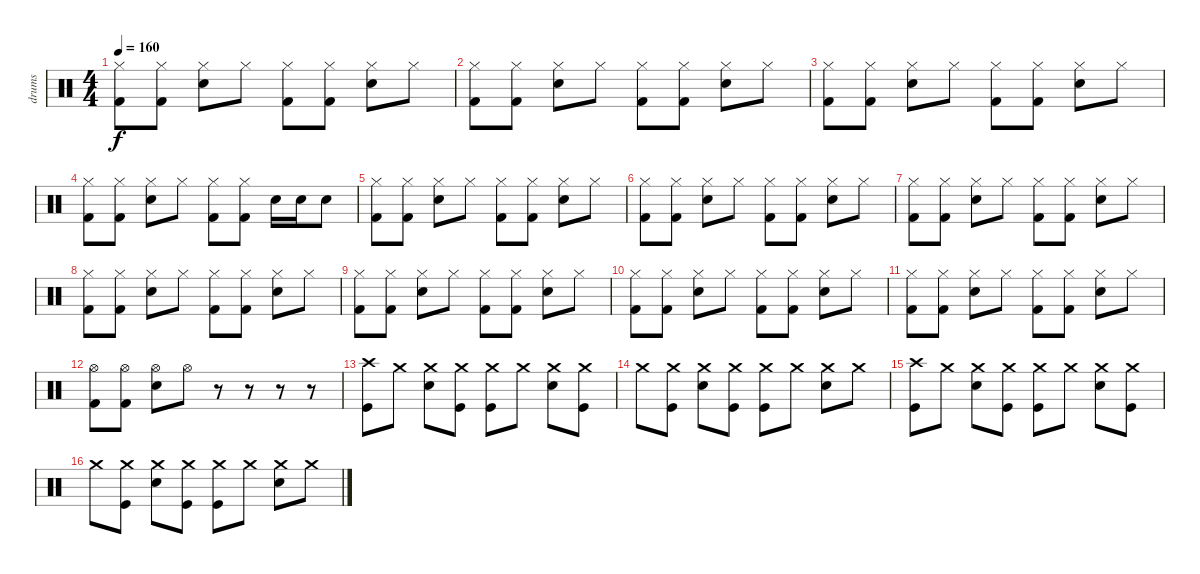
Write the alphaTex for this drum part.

\track ("drums" "drums") {instrument percussion}
\staff {score}
\articulation defaults
\ts (4 4)
\tempo 160
\clef neutral
\ks c
("Hi-Hat (closed)" "Kick (hit) 2").8{dy f} ("Hi-Hat (closed)" "Kick (hit) 2").8 ("Hi-Hat (closed)" "Electric Snare (hit)").8 "Hi-Hat (closed)".8 ("Hi-Hat (closed)" "Kick (hit) 2").8 ("Hi-Hat (closed)" "Kick (hit) 2").8 ("Hi-Hat (closed)" "Electric Snare (hit)").8 "Hi-Hat (closed)".8 |
("Hi-Hat (closed)" "Kick (hit) 2").8 ("Hi-Hat (closed)" "Kick (hit) 2").8 ("Hi-Hat (closed)" "Electric Snare (hit)").8 "Hi-Hat (closed)".8 ("Hi-Hat (closed)" "Kick (hit) 2").8 ("Hi-Hat (closed)" "Kick (hit) 2").8 ("Hi-Hat (closed)" "Electric Snare (hit)").8 "Hi-Hat (closed)".8 |
("Hi-Hat (closed)" "Kick (hit) 2").8 ("Hi-Hat (closed)" "Kick (hit) 2").8 ("Hi-Hat (closed)" "Electric Snare (hit)").8 "Hi-Hat (closed)".8 ("Hi-Hat (closed)" "Kick (hit) 2").8 ("Hi-Hat (closed)" "Kick (hit) 2").8 ("Hi-Hat (closed)" "Electric Snare (hit)").8 "Hi-Hat (closed)".8 |
("Hi-Hat (closed)" "Kick (hit) 2").8 ("Hi-Hat (closed)" "Kick (hit) 2").8 ("Hi-Hat (closed)" "Electric Snare (hit)").8 "Hi-Hat (closed)".8 ("Hi-Hat (closed)" "Kick (hit) 2").8 ("Hi-Hat (closed)" "Kick (hit) 2").8 "Electric Snare (hit)".16 "Electric Snare (hit)".16 "Electric Snare (hit)".8 |
("Hi-Hat (closed)" "Kick (hit) 2").8 ("Hi-Hat (closed)" "Kick (hit) 2").8 ("Hi-Hat (closed)" "Electric Snare (hit)").8 "Hi-Hat (closed)".8 ("Hi-Hat (closed)" "Kick (hit) 2").8 ("Hi-Hat (closed)" "Kick (hit) 2").8 ("Hi-Hat (closed)" "Electric Snare (hit)").8 "Hi-Hat (closed)".8 |
("Hi-Hat (closed)" "Kick (hit) 2").8 ("Hi-Hat (closed)" "Kick (hit) 2").8 ("Hi-Hat (closed)" "Electric Snare (hit)").8 "Hi-Hat (closed)".8 ("Hi-Hat (closed)" "Kick (hit) 2").8 ("Hi-Hat (closed)" "Kick (hit) 2").8 ("Hi-Hat (closed)" "Electric Snare (hit)").8 "Hi-Hat (closed)".8 |
("Hi-Hat (closed)" "Kick (hit) 2").8 ("Hi-Hat (closed)" "Kick (hit) 2").8 ("Hi-Hat (closed)" "Electric Snare (hit)").8 "Hi-Hat (closed)".8 ("Hi-Hat (closed)" "Kick (hit) 2").8 ("Hi-Hat (closed)" "Kick (hit) 2").8 ("Hi-Hat (closed)" "Electric Snare (hit)").8 "Hi-Hat (closed)".8 |
("Hi-Hat (closed)" "Kick (hit) 2").8 ("Hi-Hat (closed)" "Kick (hit) 2").8 ("Hi-Hat (closed)" "Electric Snare (hit)").8 "Hi-Hat (closed)".8 ("Hi-Hat (closed)" "Kick (hit) 2").8 ("Hi-Hat (closed)" "Kick (hit) 2").8 ("Hi-Hat (closed)" "Electric Snare (hit)").8 "Hi-Hat (closed)".8 |
("Hi-Hat (closed)" "Kick (hit) 2").8 ("Hi-Hat (closed)" "Kick (hit) 2").8 ("Hi-Hat (closed)" "Electric Snare (hit)").8 "Hi-Hat (closed)".8 ("Hi-Hat (closed)" "Kick (hit) 2").8 ("Hi-Hat (closed)" "Kick (hit) 2").8 ("Hi-Hat (closed)" "Electric Snare (hit)").8 "Hi-Hat (closed)".8 |
("Hi-Hat (closed)" "Kick (hit) 2").8 ("Hi-Hat (closed)" "Kick (hit) 2").8 ("Hi-Hat (closed)" "Electric Snare (hit)").8 "Hi-Hat (closed)".8 ("Hi-Hat (closed)" "Kick (hit) 2").8 ("Hi-Hat (closed)" "Kick (hit) 2").8 ("Hi-Hat (closed)" "Electric Snare (hit)").8 "Hi-Hat (closed)".8 |
("Hi-Hat (closed)" "Kick (hit) 2").8 ("Hi-Hat (closed)" "Kick (hit) 2").8 ("Hi-Hat (closed)" "Electric Snare (hit)").8 "Hi-Hat (closed)".8 ("Hi-Hat (closed)" "Kick (hit) 2").8 ("Hi-Hat (closed)" "Kick (hit) 2").8 ("Hi-Hat (closed)" "Electric Snare (hit)").8 "Hi-Hat (closed)".8 |
("Hi-Hat (open)" "Kick (hit) 2").8 ("Hi-Hat (open)" "Kick (hit) 2").8 ("Hi-Hat (open)" "Electric Snare (hit)").8 "Hi-Hat (open)".8 r.8 r.8 r.8 r.8 |
("Crash high (hit)" "Kick (hit)").8 "Crash medium (hit)".8 ("Crash medium (hit)" "Snare (hit) 2").8 ("Crash medium (hit)" "Kick (hit)").8 ("Crash medium (hit)" "Kick (hit)").8 "Crash medium (hit)".8 ("Crash medium (hit)" "Snare (hit) 2").8 ("Crash medium (hit)" "Kick (hit)").8 |
"Crash medium (hit)".8 ("Crash medium (hit)" "Kick (hit)").8 ("Crash medium (hit)" "Snare (hit) 2").8 ("Crash medium (hit)" "Kick (hit)").8 ("Crash medium (hit)" "Kick (hit)").8 "Crash medium (hit)".8 ("Crash medium (hit)" "Snare (hit) 2").8 "Crash medium (hit)".8 |
("Crash high (hit)" "Kick (hit)").8 "Crash medium (hit)".8 ("Crash medium (hit)" "Snare (hit) 2").8 ("Crash medium (hit)" "Kick (hit)").8 ("Crash medium (hit)" "Kick (hit)").8 "Crash medium (hit)".8 ("Crash medium (hit)" "Snare (hit) 2").8 ("Crash medium (hit)" "Kick (hit)").8 |
"Crash medium (hit)".8 ("Crash medium (hit)" "Kick (hit)").8 ("Crash medium (hit)" "Snare (hit) 2").8 ("Crash medium (hit)" "Kick (hit)").8 ("Crash medium (hit)" "Kick (hit)").8 "Crash medium (hit)".8 ("Crash medium (hit)" "Snare (hit) 2").8 "Crash medium (hit)".8
